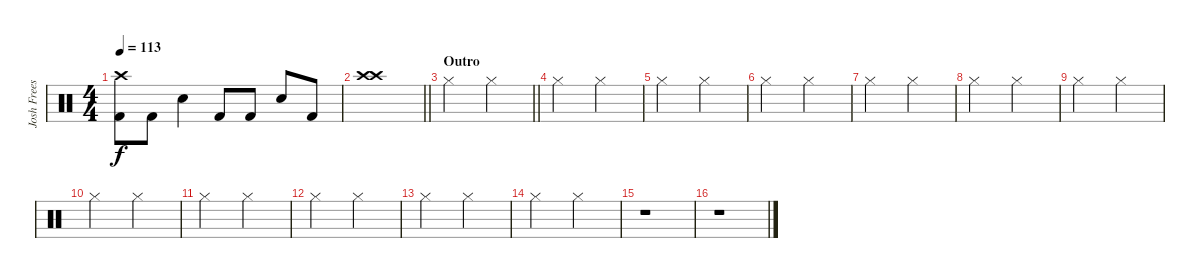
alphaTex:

\track ("Josh Freese (Studio Drummer)" "Josh Frees") {instrument percussion}
\staff {score}
\articulation defaults
\ts (4 4)
\tempo 113
\clef neutral
\ks c
("Crash high (hit)" "Kick (hit) 2").8{dy f} "Kick (hit) 2".8 "Electric Snare (hit)".4 "Kick (hit) 2".8 "Kick (hit) 2".8 "Electric Snare (hit)".8 "Kick (hit) 2".8 |
\barLineRight lightlight
("Crash high (hit)" "Crash high (hit)").1 |
\section ("" "Outro")
\barLineRight lightlight "Hi-Hat (closed)".2 "Hi-Hat (closed)".2
|
"Hi-Hat (closed)".2 "Hi-Hat (closed)".2 |
"Hi-Hat (closed)".2 "Hi-Hat (closed)".2 |
"Hi-Hat (closed)".2 "Hi-Hat (closed)".2 |
"Hi-Hat (closed)".2 "Hi-Hat (closed)".2 |
"Hi-Hat (closed)".2 "Hi-Hat (closed)".2 |
"Hi-Hat (closed)".2 "Hi-Hat (closed)".2 |
"Hi-Hat (closed)".2 "Hi-Hat (closed)".2 |
"Hi-Hat (closed)".2 "Hi-Hat (closed)".2 |
"Hi-Hat (closed)".2 "Hi-Hat (closed)".2 |
"Hi-Hat (closed)".2 "Hi-Hat (closed)".2 |
"Hi-Hat (closed)".2 "Hi-Hat (closed)".2 |
r.1 |
r.1
